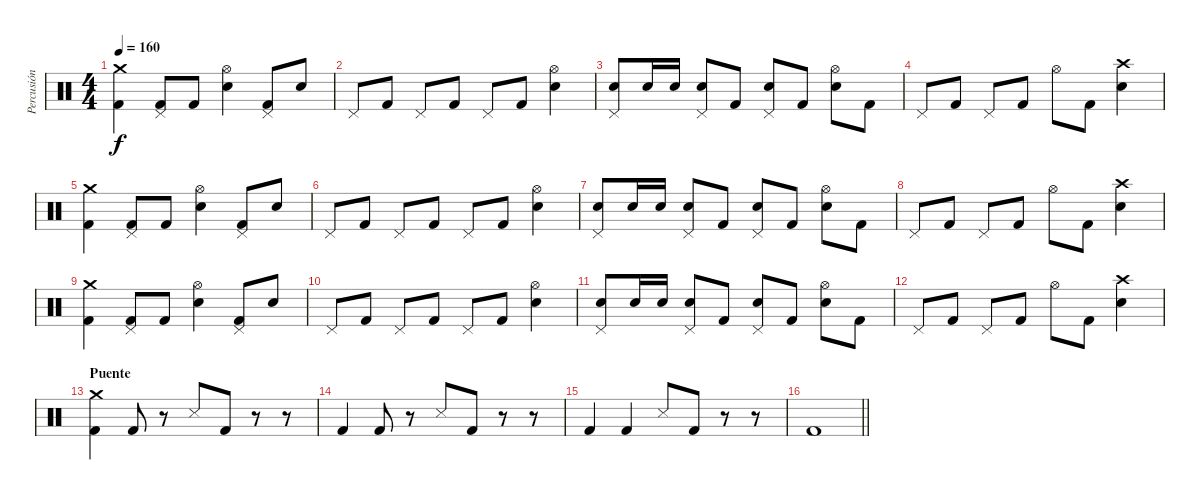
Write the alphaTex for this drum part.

\track ("Percusión" "Percusión") {instrument percussion}
\staff {score}
\articulation defaults
\ts (4 4)
\tempo 160
\clef neutral
\ks c
("Crash medium (hit)" "Kick (hit) 2").4{dy f} ("Pedal Hi-Hat (hit)" "Kick (hit) 2").8 "Kick (hit) 2".8 ("Hi-Hat (open)" "Snare (hit) 2").4 ("Pedal Hi-Hat (hit)" "Kick (hit) 2").8 "Snare (hit) 2".8 |
"Pedal Hi-Hat (hit)".8 "Kick (hit) 2".8 "Pedal Hi-Hat (hit)".8 "Kick (hit) 2".8 "Pedal Hi-Hat (hit)".8 "Kick (hit) 2".8 ("Hi-Hat (open)" "Snare (hit) 2").4 |
("Pedal Hi-Hat (hit)" "Snare (hit) 2").8 "Snare (hit) 2".16 "Snare (hit) 2".16 ("Pedal Hi-Hat (hit)" "Snare (hit) 2").8 "Kick (hit) 2".8 ("Pedal Hi-Hat (hit)" "Snare (hit) 2").8 "Kick (hit) 2".8 ("Hi-Hat (open)" "Snare (hit) 2").8 "Kick (hit) 2".8 |
"Pedal Hi-Hat (hit)".8 "Kick (hit) 2".8 "Pedal Hi-Hat (hit)".8 "Kick (hit) 2".8 "Hi-Hat (open)".8 "Kick (hit) 2".8 ("Crash high (hit)" "Snare (hit) 2").4 |
("Crash medium (hit)" "Kick (hit) 2").4 ("Pedal Hi-Hat (hit)" "Kick (hit) 2").8 "Kick (hit) 2".8 ("Hi-Hat (open)" "Snare (hit) 2").4 ("Pedal Hi-Hat (hit)" "Kick (hit) 2").8 "Snare (hit) 2".8 |
"Pedal Hi-Hat (hit)".8 "Kick (hit) 2".8 "Pedal Hi-Hat (hit)".8 "Kick (hit) 2".8 "Pedal Hi-Hat (hit)".8 "Kick (hit) 2".8 ("Hi-Hat (open)" "Snare (hit) 2").4 |
("Pedal Hi-Hat (hit)" "Snare (hit) 2").8 "Snare (hit) 2".16 "Snare (hit) 2".16 ("Pedal Hi-Hat (hit)" "Snare (hit) 2").8 "Kick (hit) 2".8 ("Pedal Hi-Hat (hit)" "Snare (hit) 2").8 "Kick (hit) 2".8 ("Hi-Hat (open)" "Snare (hit) 2").8 "Kick (hit) 2".8 |
"Pedal Hi-Hat (hit)".8 "Kick (hit) 2".8 "Pedal Hi-Hat (hit)".8 "Kick (hit) 2".8 "Hi-Hat (open)".8 "Kick (hit) 2".8 ("Crash high (hit)" "Snare (hit) 2").4 |
("Crash medium (hit)" "Kick (hit) 2").4 ("Pedal Hi-Hat (hit)" "Kick (hit) 2").8 "Kick (hit) 2".8 ("Hi-Hat (open)" "Snare (hit) 2").4 ("Pedal Hi-Hat (hit)" "Kick (hit) 2").8 "Snare (hit) 2".8 |
"Pedal Hi-Hat (hit)".8 "Kick (hit) 2".8 "Pedal Hi-Hat (hit)".8 "Kick (hit) 2".8 "Pedal Hi-Hat (hit)".8 "Kick (hit) 2".8 ("Hi-Hat (open)" "Snare (hit) 2").4 |
("Pedal Hi-Hat (hit)" "Snare (hit) 2").8 "Snare (hit) 2".16 "Snare (hit) 2".16 ("Pedal Hi-Hat (hit)" "Snare (hit) 2").8 "Kick (hit) 2".8 ("Pedal Hi-Hat (hit)" "Snare (hit) 2").8 "Kick (hit) 2".8 ("Hi-Hat (open)" "Snare (hit) 2").8 "Kick (hit) 2".8 |
"Pedal Hi-Hat (hit)".8 "Kick (hit) 2".8 "Pedal Hi-Hat (hit)".8 "Kick (hit) 2".8 "Hi-Hat (open)".8 "Kick (hit) 2".8 ("Crash high (hit)" "Snare (hit) 2").4 |
\section ("" "Puente")
("Crash medium (hit)" "Kick (hit) 2").4 "Kick (hit) 2".8 r.8 "Metronome (hit)".8 "Kick (hit) 2".8 r.8 r.8 |
"Kick (hit) 2".4 "Kick (hit) 2".8 r.8 "Metronome (hit)".8 "Kick (hit) 2".8 r.8 r.8 |
"Kick (hit) 2".4 "Kick (hit) 2".4 "Metronome (hit)".8 "Kick (hit) 2".8 r.8 r.8 |
\barLineRight lightlight "Kick (hit) 2".1
